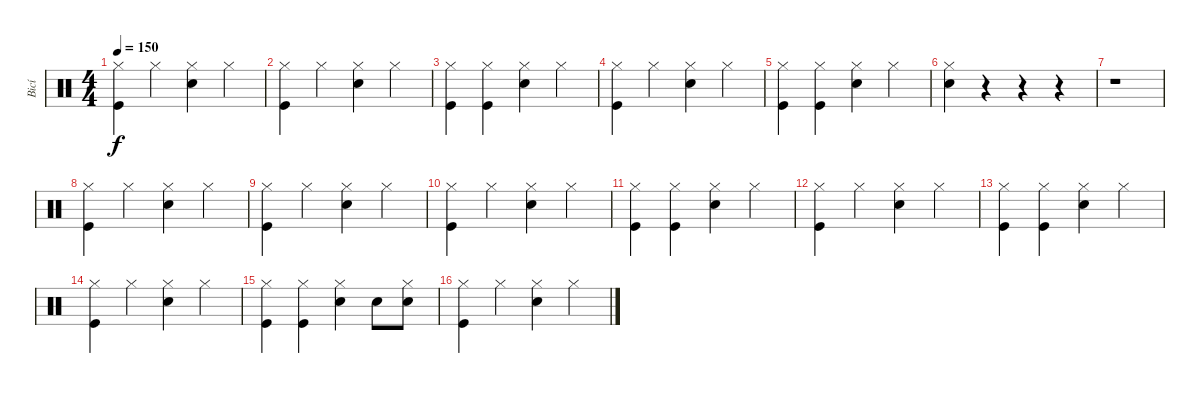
\track ("Bicí" "Bicí") {instrument percussion}
\staff {score}
\articulation defaults
\ts (4 4)
\tempo 150
\clef neutral
\ks c
("Kick (hit)" "Hi-Hat (closed)").4{dy f} "Hi-Hat (closed)".4 ("Snare (hit) 2" "Hi-Hat (closed)").4 "Hi-Hat (closed)".4 |
("Kick (hit)" "Hi-Hat (closed)").4 "Hi-Hat (closed)".4 ("Snare (hit) 2" "Hi-Hat (closed)").4 "Hi-Hat (closed)".4 |
("Kick (hit)" "Hi-Hat (closed)").4 ("Kick (hit)" "Hi-Hat (closed)").4 ("Snare (hit) 2" "Hi-Hat (closed)").4 "Hi-Hat (closed)".4 |
("Kick (hit)" "Hi-Hat (closed)").4 "Hi-Hat (closed)".4 ("Snare (hit) 2" "Hi-Hat (closed)").4 "Hi-Hat (closed)".4 |
("Kick (hit)" "Hi-Hat (closed)").4 ("Kick (hit)" "Hi-Hat (closed)").4 ("Snare (hit) 2" "Hi-Hat (closed)").4 "Hi-Hat (closed)".4 |
("Snare (hit) 2" "Hi-Hat (closed)").4 r.4 r.4 r.4 |
r.1 |
("Kick (hit)" "Hi-Hat (closed)").4 "Hi-Hat (closed)".4 ("Snare (hit) 2" "Hi-Hat (closed)").4 "Hi-Hat (closed)".4 |
("Kick (hit)" "Hi-Hat (closed)").4 "Hi-Hat (closed)".4 ("Snare (hit) 2" "Hi-Hat (closed)").4 "Hi-Hat (closed)".4 |
("Kick (hit)" "Hi-Hat (closed)").4 "Hi-Hat (closed)".4 ("Snare (hit) 2" "Hi-Hat (closed)").4 "Hi-Hat (closed)".4 |
("Kick (hit)" "Hi-Hat (closed)").4 ("Kick (hit)" "Hi-Hat (closed)").4 ("Snare (hit) 2" "Hi-Hat (closed)").4 "Hi-Hat (closed)".4 |
("Kick (hit)" "Hi-Hat (closed)").4 "Hi-Hat (closed)".4 ("Snare (hit) 2" "Hi-Hat (closed)").4 "Hi-Hat (closed)".4 |
("Kick (hit)" "Hi-Hat (closed)").4 ("Kick (hit)" "Hi-Hat (closed)").4 ("Snare (hit) 2" "Hi-Hat (closed)").4 "Hi-Hat (closed)".4 |
("Kick (hit)" "Hi-Hat (closed)").4 "Hi-Hat (closed)".4 ("Snare (hit) 2" "Hi-Hat (closed)").4 "Hi-Hat (closed)".4 |
("Kick (hit)" "Hi-Hat (closed)").4 ("Kick (hit)" "Hi-Hat (closed)").4 ("Snare (hit) 2" "Hi-Hat (closed)").4 "Snare (hit) 2".8 ("Snare (hit) 2" "Hi-Hat (closed)").8 |
("Kick (hit)" "Hi-Hat (closed)").4 "Hi-Hat (closed)".4 ("Snare (hit) 2" "Hi-Hat (closed)").4 "Hi-Hat (closed)".4
